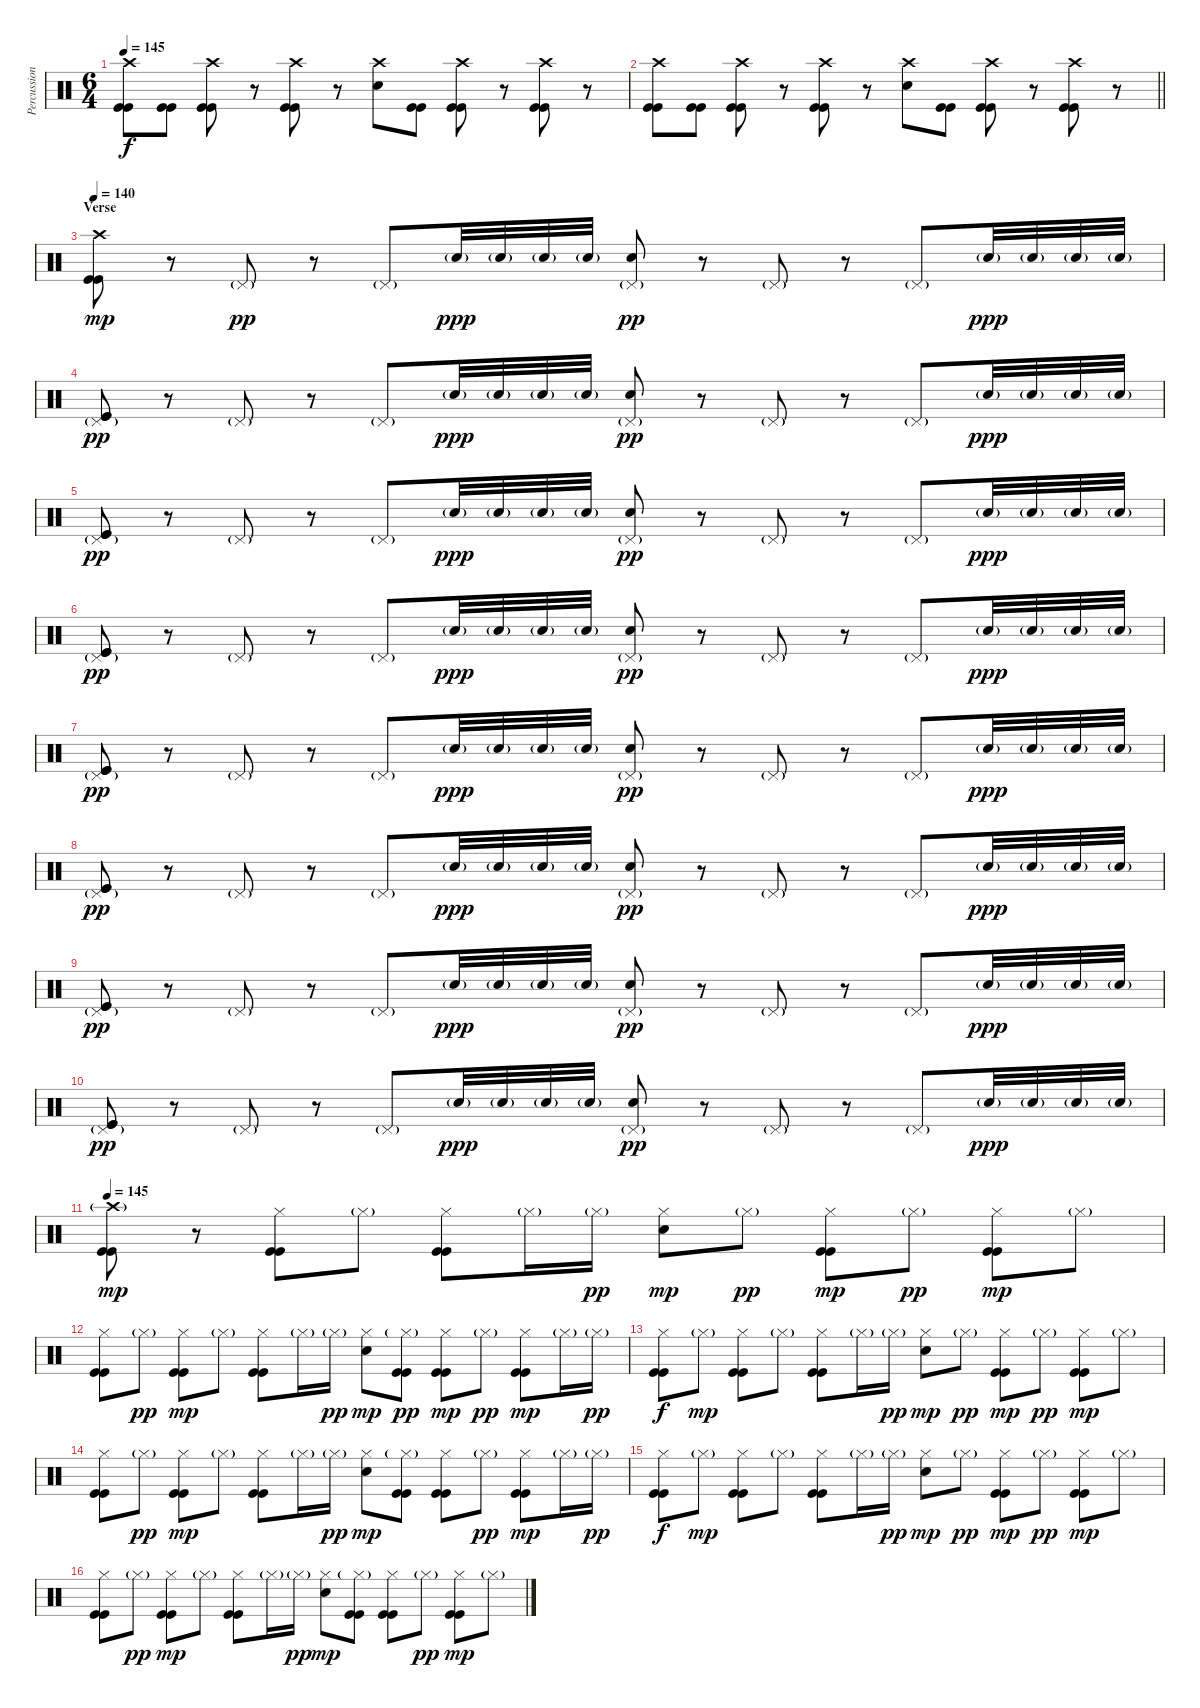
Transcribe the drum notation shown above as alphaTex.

\track ("Percussion" "Percussion") {instrument percussion}
\staff {score}
\articulation defaults
\ts (6 4)
\tempo 145
\clef neutral
\ks c
("Crash high (hit)" "Kick (hit)" "Kick (hit)").8{dy f} ("Kick (hit)" "Kick (hit)").8 ("Crash high (hit)" "Kick (hit)" "Kick (hit)").8 r.8 ("Crash high (hit)" "Kick (hit)" "Kick (hit)").8 r.8 ("Crash high (hit)" "Snare (hit) 2").8 ("Kick (hit)" "Kick (hit)").8 ("Crash high (hit)" "Kick (hit)" "Kick (hit)").8 r.8 ("Crash high (hit)" "Kick (hit)" "Kick (hit)").8 r.8 |
\barLineRight lightlight
("Crash high (hit)" "Kick (hit)" "Kick (hit)").8 ("Kick (hit)" "Kick (hit)").8 ("Crash high (hit)" "Kick (hit)" "Kick (hit)").8 r.8 ("Crash high (hit)" "Kick (hit)" "Kick (hit)").8 r.8 ("Crash high (hit)" "Snare (hit) 2").8 ("Kick (hit)" "Kick (hit)").8 ("Crash high (hit)" "Kick (hit)" "Kick (hit)").8 r.8 ("Crash high (hit)" "Kick (hit)" "Kick (hit)").8 r.8 |
\section ("" "Verse")
\tempo 140
("Crash high (hit)" "Kick (hit)" "Kick (hit)").8{dy mp} r.8 "Pedal Hi-Hat (hit)"{g}.8{dy pp} r.8 "Pedal Hi-Hat (hit)"{g}.8 "Snare (hit) 2"{g}.32{dy ppp} "Snare (hit) 2"{g}.32 "Snare (hit) 2"{g}.32 "Snare (hit) 2"{g}.32 ("Pedal Hi-Hat (hit)"{g} "Snare (hit) 2").8{dy pp} r.8 "Pedal Hi-Hat (hit)"{g}.8 r.8 "Pedal Hi-Hat (hit)"{g}.8 "Snare (hit) 2"{g}.32{dy ppp} "Snare (hit) 2"{g}.32 "Snare (hit) 2"{g}.32 "Snare (hit) 2"{g}.32 |
("Pedal Hi-Hat (hit)"{g} "Kick (hit)" "Kick (hit)").8{dy pp} r.8 "Pedal Hi-Hat (hit)"{g}.8 r.8 "Pedal Hi-Hat (hit)"{g}.8 "Snare (hit) 2"{g}.32{dy ppp} "Snare (hit) 2"{g}.32 "Snare (hit) 2"{g}.32 "Snare (hit) 2"{g}.32 ("Pedal Hi-Hat (hit)"{g} "Snare (hit) 2").8{dy pp} r.8 "Pedal Hi-Hat (hit)"{g}.8 r.8 "Pedal Hi-Hat (hit)"{g}.8 "Snare (hit) 2"{g}.32{dy ppp} "Snare (hit) 2"{g}.32 "Snare (hit) 2"{g}.32 "Snare (hit) 2"{g}.32 |
("Pedal Hi-Hat (hit)"{g} "Kick (hit)" "Kick (hit)").8{dy pp} r.8 "Pedal Hi-Hat (hit)"{g}.8 r.8 "Pedal Hi-Hat (hit)"{g}.8 "Snare (hit) 2"{g}.32{dy ppp} "Snare (hit) 2"{g}.32 "Snare (hit) 2"{g}.32 "Snare (hit) 2"{g}.32 ("Pedal Hi-Hat (hit)"{g} "Snare (hit) 2").8{dy pp} r.8 "Pedal Hi-Hat (hit)"{g}.8 r.8 "Pedal Hi-Hat (hit)"{g}.8 "Snare (hit) 2"{g}.32{dy ppp} "Snare (hit) 2"{g}.32 "Snare (hit) 2"{g}.32 "Snare (hit) 2"{g}.32 |
("Pedal Hi-Hat (hit)"{g} "Kick (hit)" "Kick (hit)").8{dy pp} r.8 "Pedal Hi-Hat (hit)"{g}.8 r.8 "Pedal Hi-Hat (hit)"{g}.8 "Snare (hit) 2"{g}.32{dy ppp} "Snare (hit) 2"{g}.32 "Snare (hit) 2"{g}.32 "Snare (hit) 2"{g}.32 ("Pedal Hi-Hat (hit)"{g} "Snare (hit) 2").8{dy pp} r.8 "Pedal Hi-Hat (hit)"{g}.8 r.8 "Pedal Hi-Hat (hit)"{g}.8 "Snare (hit) 2"{g}.32{dy ppp} "Snare (hit) 2"{g}.32 "Snare (hit) 2"{g}.32 "Snare (hit) 2"{g}.32 |
("Pedal Hi-Hat (hit)"{g} "Kick (hit)" "Kick (hit)").8{dy pp} r.8 "Pedal Hi-Hat (hit)"{g}.8 r.8 "Pedal Hi-Hat (hit)"{g}.8 "Snare (hit) 2"{g}.32{dy ppp} "Snare (hit) 2"{g}.32 "Snare (hit) 2"{g}.32 "Snare (hit) 2"{g}.32 ("Pedal Hi-Hat (hit)"{g} "Snare (hit) 2").8{dy pp} r.8 "Pedal Hi-Hat (hit)"{g}.8 r.8 "Pedal Hi-Hat (hit)"{g}.8 "Snare (hit) 2"{g}.32{dy ppp} "Snare (hit) 2"{g}.32 "Snare (hit) 2"{g}.32 "Snare (hit) 2"{g}.32 |
("Pedal Hi-Hat (hit)"{g} "Kick (hit)" "Kick (hit)").8{dy pp} r.8 "Pedal Hi-Hat (hit)"{g}.8 r.8 "Pedal Hi-Hat (hit)"{g}.8 "Snare (hit) 2"{g}.32{dy ppp} "Snare (hit) 2"{g}.32 "Snare (hit) 2"{g}.32 "Snare (hit) 2"{g}.32 ("Pedal Hi-Hat (hit)"{g} "Snare (hit) 2").8{dy pp} r.8 "Pedal Hi-Hat (hit)"{g}.8 r.8 "Pedal Hi-Hat (hit)"{g}.8 "Snare (hit) 2"{g}.32{dy ppp} "Snare (hit) 2"{g}.32 "Snare (hit) 2"{g}.32 "Snare (hit) 2"{g}.32 |
("Pedal Hi-Hat (hit)"{g} "Kick (hit)" "Kick (hit)").8{dy pp} r.8 "Pedal Hi-Hat (hit)"{g}.8 r.8 "Pedal Hi-Hat (hit)"{g}.8 "Snare (hit) 2"{g}.32{dy ppp} "Snare (hit) 2"{g}.32 "Snare (hit) 2"{g}.32 "Snare (hit) 2"{g}.32 ("Pedal Hi-Hat (hit)"{g} "Snare (hit) 2").8{dy pp} r.8 "Pedal Hi-Hat (hit)"{g}.8 r.8 "Pedal Hi-Hat (hit)"{g}.8 "Snare (hit) 2"{g}.32{dy ppp} "Snare (hit) 2"{g}.32 "Snare (hit) 2"{g}.32 "Snare (hit) 2"{g}.32 |
("Pedal Hi-Hat (hit)"{g} "Kick (hit)" "Kick (hit)").8{dy pp} r.8 "Pedal Hi-Hat (hit)"{g}.8 r.8 "Pedal Hi-Hat (hit)"{g}.8 "Snare (hit) 2"{g}.32{dy ppp} "Snare (hit) 2"{g}.32 "Snare (hit) 2"{g}.32 "Snare (hit) 2"{g}.32 ("Pedal Hi-Hat (hit)"{g} "Snare (hit) 2").8{dy pp} r.8 "Pedal Hi-Hat (hit)"{g}.8 r.8 "Pedal Hi-Hat (hit)"{g}.8 "Snare (hit) 2"{g}.32{dy ppp} "Snare (hit) 2"{g}.32 "Snare (hit) 2"{g}.32 "Snare (hit) 2"{g}.32 |
\tempo 145
("Crash high (hit)"{g} "Kick (hit)" "Kick (hit)").8{dy mp} r.8 ("Hi-Hat (closed)" "Kick (hit)" "Kick (hit)").8 "Hi-Hat (closed)"{g}.8 ("Hi-Hat (closed)" "Kick (hit)" "Kick (hit)").8 "Hi-Hat (closed)"{g}.16 "Hi-Hat (closed)"{g}.16{dy pp} ("Hi-Hat (closed)" "Snare (hit) 2").8{dy mp} "Hi-Hat (closed)"{g}.8{dy pp} ("Hi-Hat (closed)" "Kick (hit)" "Kick (hit)").8{dy mp} "Hi-Hat (closed)"{g}.8{dy pp} ("Hi-Hat (closed)" "Kick (hit)" "Kick (hit)").8{dy mp} "Hi-Hat (closed)"{g}.8 |
("Hi-Hat (closed)" "Kick (hit)" "Kick (hit)").8 "Hi-Hat (closed)"{g}.8{dy pp} ("Hi-Hat (closed)" "Kick (hit)" "Kick (hit)").8{dy mp} "Hi-Hat (closed)"{g}.8 ("Hi-Hat (closed)" "Kick (hit)" "Kick (hit)").8 "Hi-Hat (closed)"{g}.16 "Hi-Hat (closed)"{g}.16{dy pp} ("Hi-Hat (closed)" "Snare (hit) 2").8{dy mp} ("Hi-Hat (closed)"{g} "Kick (hit)" "Kick (hit)").8{dy pp} ("Hi-Hat (closed)" "Kick (hit)" "Kick (hit)").8{dy mp} "Hi-Hat (closed)"{g}.8{dy pp} ("Hi-Hat (closed)" "Kick (hit)" "Kick (hit)").8{dy mp} "Hi-Hat (closed)"{g}.16 "Hi-Hat (closed)"{g}.16{dy pp} |
("Hi-Hat (closed)" "Kick (hit)" "Kick (hit)").8{dy f} "Hi-Hat (closed)"{g}.8{dy mp} ("Hi-Hat (closed)" "Kick (hit)" "Kick (hit)").8 "Hi-Hat (closed)"{g}.8 ("Hi-Hat (closed)" "Kick (hit)" "Kick (hit)").8 "Hi-Hat (closed)"{g}.16 "Hi-Hat (closed)"{g}.16{dy pp} ("Hi-Hat (closed)" "Snare (hit) 2").8{dy mp} "Hi-Hat (closed)"{g}.8{dy pp} ("Hi-Hat (closed)" "Kick (hit)" "Kick (hit)").8{dy mp} "Hi-Hat (closed)"{g}.8{dy pp} ("Hi-Hat (closed)" "Kick (hit)" "Kick (hit)").8{dy mp} "Hi-Hat (closed)"{g}.8 |
("Hi-Hat (closed)" "Kick (hit)" "Kick (hit)").8 "Hi-Hat (closed)"{g}.8{dy pp} ("Hi-Hat (closed)" "Kick (hit)" "Kick (hit)").8{dy mp} "Hi-Hat (closed)"{g}.8 ("Hi-Hat (closed)" "Kick (hit)" "Kick (hit)").8 "Hi-Hat (closed)"{g}.16 "Hi-Hat (closed)"{g}.16{dy pp} ("Hi-Hat (closed)" "Snare (hit) 2").8{dy mp} ("Hi-Hat (closed)"{g} "Kick (hit)" "Kick (hit)").8 ("Hi-Hat (closed)" "Kick (hit)" "Kick (hit)").8 "Hi-Hat (closed)"{g}.8{dy pp} ("Hi-Hat (closed)" "Kick (hit)" "Kick (hit)").8{dy mp} "Hi-Hat (closed)"{g}.16 "Hi-Hat (closed)"{g}.16{dy pp} |
("Hi-Hat (closed)" "Kick (hit)" "Kick (hit)").8{dy f} "Hi-Hat (closed)"{g}.8{dy mp} ("Hi-Hat (closed)" "Kick (hit)" "Kick (hit)").8 "Hi-Hat (closed)"{g}.8 ("Hi-Hat (closed)" "Kick (hit)" "Kick (hit)").8 "Hi-Hat (closed)"{g}.16 "Hi-Hat (closed)"{g}.16{dy pp} ("Hi-Hat (closed)" "Snare (hit) 2").8{dy mp} "Hi-Hat (closed)"{g}.8{dy pp} ("Hi-Hat (closed)" "Kick (hit)" "Kick (hit)").8{dy mp} "Hi-Hat (closed)"{g}.8{dy pp} ("Hi-Hat (closed)" "Kick (hit)" "Kick (hit)").8{dy mp} "Hi-Hat (closed)"{g}.8 |
("Hi-Hat (closed)" "Kick (hit)" "Kick (hit)").8 "Hi-Hat (closed)"{g}.8{dy pp} ("Hi-Hat (closed)" "Kick (hit)" "Kick (hit)").8{dy mp} "Hi-Hat (closed)"{g}.8 ("Hi-Hat (closed)" "Kick (hit)" "Kick (hit)").8 "Hi-Hat (closed)"{g}.16 "Hi-Hat (closed)"{g}.16{dy pp} ("Hi-Hat (closed)" "Snare (hit) 2").8{dy mp} ("Hi-Hat (closed)"{g} "Kick (hit)" "Kick (hit)").8 ("Hi-Hat (closed)" "Kick (hit)" "Kick (hit)").8 "Hi-Hat (closed)"{g}.8{dy pp} ("Hi-Hat (closed)" "Kick (hit)" "Kick (hit)").8{dy mp} "Hi-Hat (closed)"{g}.8
